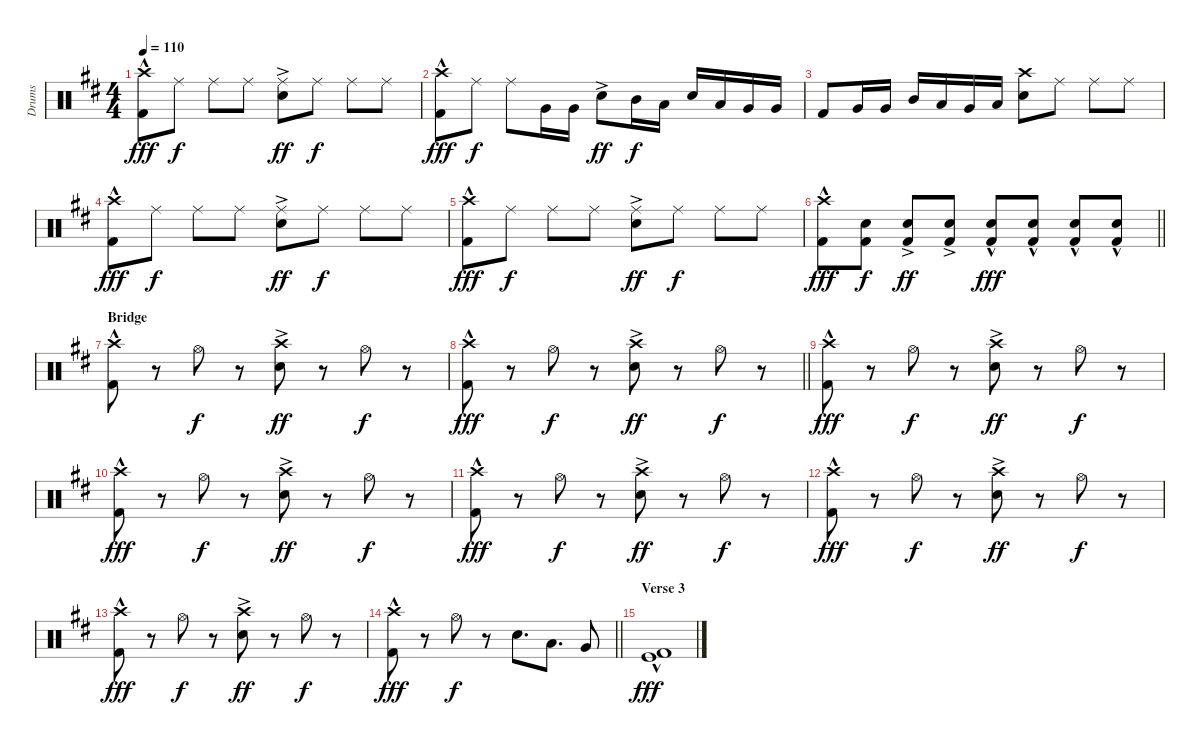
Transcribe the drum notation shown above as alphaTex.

\track ("Drums" "Drums") {instrument percussion}
\staff {score}
\articulation defaults
\ts (4 4)
\tempo 110
\clef neutral
\ks d
("Crash high (hit)" "Kick (hit) 2"{hac}).8{dy fff} "Ride (middle)".8{dy f} "Ride (middle)".8 "Ride (middle)".8 ("Snare (hit) 2"{ac} "Ride (middle)").8{dy ff} "Ride (middle)".8{dy f} "Ride (middle)".8 "Ride (middle)".8 |
("Crash high (hit)" "Kick (hit) 2"{hac}).8{dy fff} "Ride (middle)".8{dy f} "Ride (middle)".8 "Very Low Tom (hit)".16 "Very Low Tom (hit)".16 "Snare (hit) 2"{ac}.8{dy ff} "Mid Tom (hit)".16{dy f} "Low Tom (hit)".16 "Snare (hit) 2".16 "Low Tom (hit)".16 "Very Low Tom (hit)".16 "Very Low Tom (hit)".16 |
"Kick (hit) 2".8 "Very Low Tom (hit)".16 "Very Low Tom (hit)".16 "Mid Tom (hit)".16 "Low Tom (hit)".16 "Very Low Tom (hit)".16 "Low Floor Tom (hit)".16 ("Snare (hit) 2" "Crash high (hit)").8 "Ride (middle)".8 "Ride (middle)".8 "Ride (middle)".8 |
("Crash high (hit)" "Kick (hit) 2"{hac}).8{dy fff} "Ride (middle)".8{dy f} "Ride (middle)".8 "Ride (middle)".8 ("Snare (hit) 2"{ac} "Ride (middle)").8{dy ff} "Ride (middle)".8{dy f} "Ride (middle)".8 "Ride (middle)".8 |
("Crash high (hit)" "Kick (hit) 2"{hac}).8{dy fff} "Ride (middle)".8{dy f} "Ride (middle)".8 "Ride (middle)".8 ("Snare (hit) 2"{ac} "Ride (middle)").8{dy ff} "Ride (middle)".8{dy f} "Ride (middle)".8 "Ride (middle)".8 |
\barLineRight lightlight
("Crash high (hit)" "Kick (hit) 2"{hac}).8{dy fff} ("Snare (hit) 2" "Kick (hit) 2").8{dy f} ("Snare (hit) 2"{ac} "Kick (hit) 2").8{dy ff} ("Snare (hit) 2"{ac} "Kick (hit) 2").8 ("Snare (hit) 2"{hac} "Kick (hit) 2").8{dy fff} ("Snare (hit) 2"{hac} "Kick (hit) 2").8 ("Snare (hit) 2"{hac} "Kick (hit) 2").8 ("Snare (hit) 2"{hac} "Kick (hit) 2").8 |
\section ("" "Bridge")
("Crash high (hit)" "Kick (hit) 2"{hac}).8 r.8 "Hi-Hat (open)".8{dy f} r.8 ("Snare (hit) 2"{ac} "Crash high (hit)").8{dy ff} r.8 "Hi-Hat (open)".8{dy f} r.8 |
\barLineRight lightlight
("Crash high (hit)" "Kick (hit) 2"{hac}).8{dy fff} r.8 "Hi-Hat (open)".8{dy f} r.8 ("Snare (hit) 2"{ac} "Crash high (hit)").8{dy ff} r.8 "Hi-Hat (open)".8{dy f} r.8 |
("Crash high (hit)" "Kick (hit) 2"{hac}).8{dy fff} r.8 "Hi-Hat (open)".8{dy f} r.8 ("Snare (hit) 2"{ac} "Crash high (hit)").8{dy ff} r.8 "Hi-Hat (open)".8{dy f} r.8 |
("Crash high (hit)" "Kick (hit) 2"{hac}).8{dy fff} r.8 "Hi-Hat (open)".8{dy f} r.8 ("Snare (hit) 2"{ac} "Crash high (hit)").8{dy ff} r.8 "Hi-Hat (open)".8{dy f} r.8 |
("Crash high (hit)" "Kick (hit) 2"{hac}).8{dy fff} r.8 "Hi-Hat (open)".8{dy f} r.8 ("Snare (hit) 2"{ac} "Crash high (hit)").8{dy ff} r.8 "Hi-Hat (open)".8{dy f} r.8 |
("Crash high (hit)" "Kick (hit) 2"{hac}).8{dy fff} r.8 "Hi-Hat (open)".8{dy f} r.8 ("Snare (hit) 2"{ac} "Crash high (hit)").8{dy ff} r.8 "Hi-Hat (open)".8{dy f} r.8 |
("Crash high (hit)" "Kick (hit) 2"{hac}).8{dy fff} r.8 "Hi-Hat (open)".8{dy f} r.8 ("Snare (hit) 2"{ac} "Crash high (hit)").8{dy ff} r.8 "Hi-Hat (open)".8{dy f} r.8 |
\barLineRight lightlight
("Crash high (hit)" "Kick (hit) 2"{hac}).8{dy fff} r.8 "Hi-Hat (open)".8{dy f} r.8 "Snare (hit) 2".8{d} "Low Tom (hit)".8{d} "Very Low Tom (hit)".8 |
\section ("" "Verse 3")
("Kick (hit)"{hac} "Kick (hit) 2"{hac}).1{dy fff}
